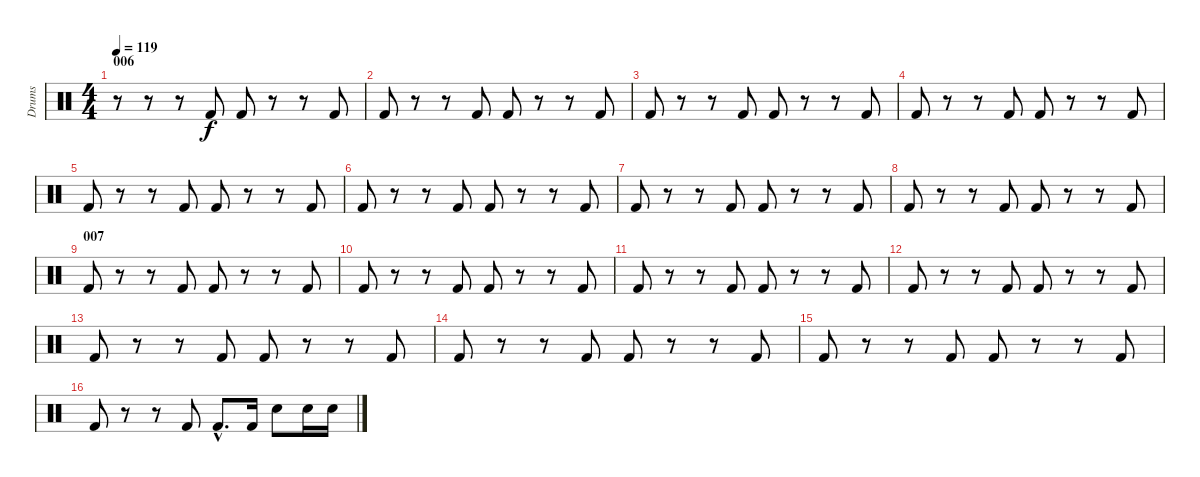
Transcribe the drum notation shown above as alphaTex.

\track ("Drums" "Drums") {instrument percussion}
\staff {score}
\articulation defaults
\ts (4 4)
\section ("" "006")
\tempo 119
\clef neutral
\ks c
r.8{dy f} r.8 r.8 "Kick (hit) 2".8 "Kick (hit) 2".8 r.8 r.8 "Kick (hit) 2".8 |
"Kick (hit) 2".8 r.8 r.8 "Kick (hit) 2".8 "Kick (hit) 2".8 r.8 r.8 "Kick (hit) 2".8 |
"Kick (hit) 2".8 r.8 r.8 "Kick (hit) 2".8 "Kick (hit) 2".8 r.8 r.8 "Kick (hit) 2".8 |
"Kick (hit) 2".8 r.8 r.8 "Kick (hit) 2".8 "Kick (hit) 2".8 r.8 r.8 "Kick (hit) 2".8 |
"Kick (hit) 2".8 r.8 r.8 "Kick (hit) 2".8 "Kick (hit) 2".8 r.8 r.8 "Kick (hit) 2".8 |
"Kick (hit) 2".8 r.8 r.8 "Kick (hit) 2".8 "Kick (hit) 2".8 r.8 r.8 "Kick (hit) 2".8 |
"Kick (hit) 2".8 r.8 r.8 "Kick (hit) 2".8 "Kick (hit) 2".8 r.8 r.8 "Kick (hit) 2".8 |
"Kick (hit) 2".8 r.8 r.8 "Kick (hit) 2".8 "Kick (hit) 2".8 r.8 r.8 "Kick (hit) 2".8 |
\section ("" "007")
"Kick (hit) 2".8 r.8 r.8 "Kick (hit) 2".8 "Kick (hit) 2".8 r.8 r.8 "Kick (hit) 2".8 |
"Kick (hit) 2".8 r.8 r.8 "Kick (hit) 2".8 "Kick (hit) 2".8 r.8 r.8 "Kick (hit) 2".8 |
"Kick (hit) 2".8 r.8 r.8 "Kick (hit) 2".8 "Kick (hit) 2".8 r.8 r.8 "Kick (hit) 2".8 |
"Kick (hit) 2".8 r.8 r.8 "Kick (hit) 2".8 "Kick (hit) 2".8 r.8 r.8 "Kick (hit) 2".8 |
"Kick (hit) 2".8 r.8 r.8 "Kick (hit) 2".8 "Kick (hit) 2".8 r.8 r.8 "Kick (hit) 2".8 |
"Kick (hit) 2".8 r.8 r.8 "Kick (hit) 2".8 "Kick (hit) 2".8 r.8 r.8 "Kick (hit) 2".8 |
"Kick (hit) 2".8 r.8 r.8 "Kick (hit) 2".8 "Kick (hit) 2".8 r.8 r.8 "Kick (hit) 2".8 |
"Kick (hit) 2".8 r.8 r.8 "Kick (hit) 2".8 "Kick (hit) 2"{hac}.8{d} "Kick (hit) 2".16 "Electric Snare (hit)".8 "Electric Snare (hit)".16 "Electric Snare (hit)".16
